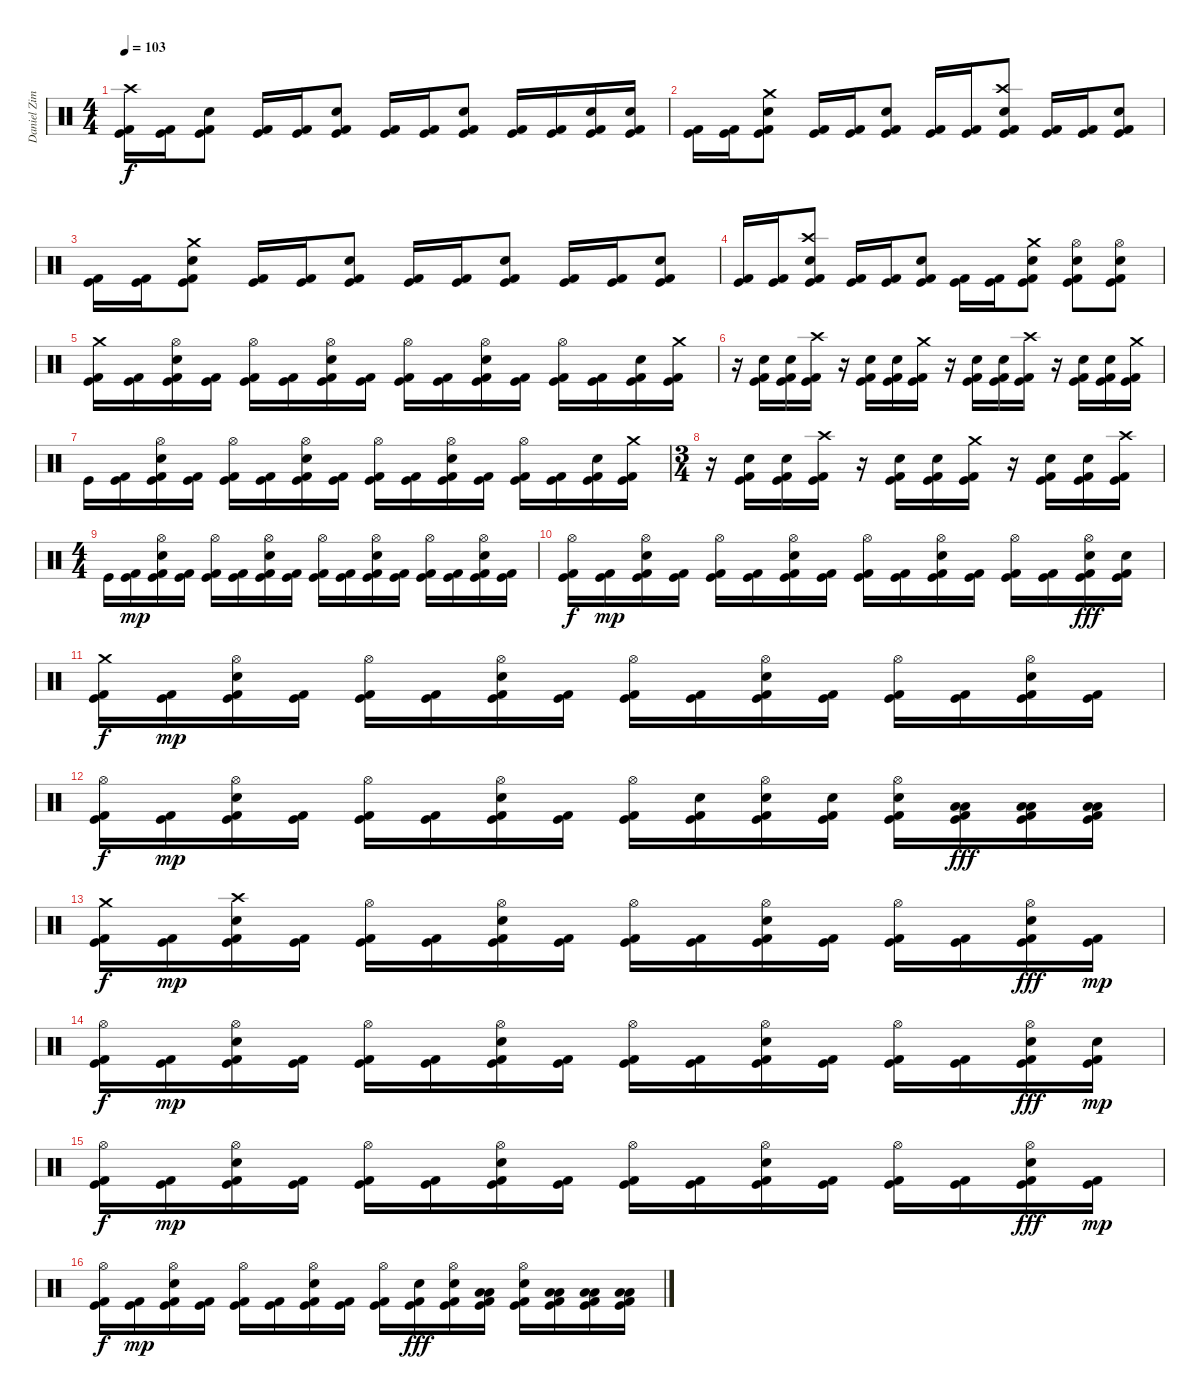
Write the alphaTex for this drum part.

\track ("Daniel Zimmermann - Drums" "Daniel Zim") {instrument percussion}
\staff {score}
\articulation defaults
\ts (4 4)
\tempo 103
\clef neutral
\ks c
("Kick (hit)" "Kick (hit) 2" "Crash high (hit)").16{dy f} ("Kick (hit)" "Kick (hit) 2").16 ("Kick (hit)" "Kick (hit) 2" "Electric Snare (hit)").8 ("Kick (hit)" "Kick (hit) 2").16 ("Kick (hit)" "Kick (hit) 2").16 ("Kick (hit)" "Kick (hit) 2" "Electric Snare (hit)").8 ("Kick (hit)" "Kick (hit) 2").16 ("Kick (hit)" "Kick (hit) 2").16 ("Kick (hit)" "Kick (hit) 2" "Electric Snare (hit)").8 ("Kick (hit)" "Kick (hit) 2").16 ("Kick (hit)" "Kick (hit) 2").16 ("Kick (hit)" "Kick (hit) 2" "Electric Snare (hit)").16 ("Kick (hit)" "Kick (hit) 2" "Electric Snare (hit)").16 |
("Kick (hit)" "Kick (hit) 2").16 ("Kick (hit)" "Kick (hit) 2").16 ("Kick (hit)" "Kick (hit) 2" "Electric Snare (hit)" "Crash medium (hit)").8 ("Kick (hit)" "Kick (hit) 2").16 ("Kick (hit)" "Kick (hit) 2").16 ("Kick (hit)" "Kick (hit) 2" "Electric Snare (hit)").8 ("Kick (hit)" "Kick (hit) 2").16 ("Kick (hit)" "Kick (hit) 2").16 ("Kick (hit)" "Kick (hit) 2" "Electric Snare (hit)" "Crash high (hit)").8 ("Kick (hit)" "Kick (hit) 2").16 ("Kick (hit)" "Kick (hit) 2").16 ("Kick (hit)" "Kick (hit) 2" "Electric Snare (hit)").8 |
("Kick (hit)" "Kick (hit) 2").16 ("Kick (hit)" "Kick (hit) 2").16 ("Kick (hit)" "Kick (hit) 2" "Electric Snare (hit)" "Crash medium (hit)").8 ("Kick (hit)" "Kick (hit) 2").16 ("Kick (hit)" "Kick (hit) 2").16 ("Kick (hit)" "Kick (hit) 2" "Electric Snare (hit)").8 ("Kick (hit)" "Kick (hit) 2").16 ("Kick (hit)" "Kick (hit) 2").16 ("Kick (hit)" "Kick (hit) 2" "Electric Snare (hit)").8 ("Kick (hit)" "Kick (hit) 2").16 ("Kick (hit)" "Kick (hit) 2").16 ("Kick (hit)" "Kick (hit) 2" "Electric Snare (hit)").8 |
("Kick (hit)" "Kick (hit) 2").16 ("Kick (hit)" "Kick (hit) 2").16 ("Kick (hit)" "Kick (hit) 2" "Electric Snare (hit)" "Crash high (hit)").8 ("Kick (hit)" "Kick (hit) 2").16 ("Kick (hit)" "Kick (hit) 2").16 ("Kick (hit)" "Kick (hit) 2" "Electric Snare (hit)").8 ("Kick (hit)" "Kick (hit) 2").16 ("Kick (hit)" "Kick (hit) 2").16 ("Kick (hit)" "Kick (hit) 2" "Electric Snare (hit)" "Crash medium (hit)").8 ("Kick (hit)" "Kick (hit) 2" "Electric Snare (hit)" "Hi-Hat (open)").8 ("Kick (hit)" "Kick (hit) 2" "Electric Snare (hit)" "Hi-Hat (open)").8 |
("Kick (hit)" "Kick (hit) 2" "Crash medium (hit)").16 ("Kick (hit)" "Kick (hit) 2").16 ("Kick (hit)" "Kick (hit) 2" "Electric Snare (hit)" "Hi-Hat (open)").16 ("Kick (hit)" "Kick (hit) 2").16 ("Kick (hit)" "Kick (hit) 2" "Hi-Hat (open)").16 ("Kick (hit)" "Kick (hit) 2").16 ("Kick (hit)" "Kick (hit) 2" "Electric Snare (hit)" "Hi-Hat (open)").16 ("Kick (hit)" "Kick (hit) 2").16 ("Kick (hit)" "Kick (hit) 2" "Hi-Hat (open)").16 ("Kick (hit)" "Kick (hit) 2").16 ("Kick (hit)" "Kick (hit) 2" "Electric Snare (hit)" "Hi-Hat (open)").16 ("Kick (hit)" "Kick (hit) 2").16 ("Kick (hit)" "Kick (hit) 2" "Hi-Hat (open)").16 ("Kick (hit)" "Kick (hit) 2").16 ("Kick (hit)" "Kick (hit) 2" "Electric Snare (hit)").16 ("Kick (hit)" "Kick (hit) 2" "Crash medium (hit)").16 |
r.16 ("Kick (hit)" "Kick (hit) 2" "Electric Snare (hit)").16 ("Kick (hit)" "Kick (hit) 2" "Electric Snare (hit)").16 ("Kick (hit)" "Kick (hit) 2" "Crash high (hit)").16 r.16 ("Kick (hit)" "Kick (hit) 2" "Electric Snare (hit)").16 ("Kick (hit)" "Kick (hit) 2" "Electric Snare (hit)").16 ("Kick (hit)" "Kick (hit) 2" "Crash medium (hit)").16 r.16 ("Kick (hit)" "Kick (hit) 2" "Electric Snare (hit)").16 ("Kick (hit)" "Kick (hit) 2" "Electric Snare (hit)").16 ("Kick (hit)" "Kick (hit) 2" "Crash high (hit)").16 r.16 ("Kick (hit)" "Kick (hit) 2" "Electric Snare (hit)").16 ("Kick (hit)" "Kick (hit) 2" "Electric Snare (hit)").16 ("Kick (hit)" "Kick (hit) 2" "Crash medium (hit)").16 |
"Kick (hit)".16 ("Kick (hit)" "Kick (hit) 2").16 ("Kick (hit)" "Kick (hit) 2" "Electric Snare (hit)" "Hi-Hat (open)").16 ("Kick (hit)" "Kick (hit) 2").16 ("Kick (hit)" "Kick (hit) 2" "Hi-Hat (open)").16 ("Kick (hit)" "Kick (hit) 2").16 ("Kick (hit)" "Kick (hit) 2" "Electric Snare (hit)" "Hi-Hat (open)").16 ("Kick (hit)" "Kick (hit) 2").16 ("Kick (hit)" "Kick (hit) 2" "Hi-Hat (open)").16 ("Kick (hit)" "Kick (hit) 2").16 ("Kick (hit)" "Kick (hit) 2" "Electric Snare (hit)" "Hi-Hat (open)").16 ("Kick (hit)" "Kick (hit) 2").16 ("Kick (hit)" "Kick (hit) 2" "Hi-Hat (open)").16 ("Kick (hit)" "Kick (hit) 2").16 ("Kick (hit)" "Kick (hit) 2" "Electric Snare (hit)").16 ("Kick (hit)" "Kick (hit) 2" "Crash medium (hit)").16 |
\ts (3 4)
r.16 ("Kick (hit)" "Kick (hit) 2" "Electric Snare (hit)").16 ("Kick (hit)" "Kick (hit) 2" "Electric Snare (hit)").16 ("Kick (hit)" "Kick (hit) 2" "Crash high (hit)").16 r.16 ("Kick (hit)" "Kick (hit) 2" "Electric Snare (hit)").16 ("Kick (hit)" "Kick (hit) 2" "Electric Snare (hit)").16 ("Kick (hit)" "Kick (hit) 2" "Crash medium (hit)").16 r.16 ("Kick (hit)" "Kick (hit) 2" "Electric Snare (hit)").16 ("Kick (hit)" "Kick (hit) 2" "Electric Snare (hit)").16 ("Kick (hit)" "Kick (hit) 2" "Crash high (hit)").16 |
\ts (4 4)
"Kick (hit)".16 ("Kick (hit)" "Kick (hit) 2").16{dy mp} ("Kick (hit)" "Kick (hit) 2" "Electric Snare (hit)" "Hi-Hat (open)").16 ("Kick (hit)" "Kick (hit) 2").16 ("Kick (hit)" "Kick (hit) 2" "Hi-Hat (open)").16 ("Kick (hit)" "Kick (hit) 2").16 ("Kick (hit)" "Kick (hit) 2" "Electric Snare (hit)" "Hi-Hat (open)").16 ("Kick (hit)" "Kick (hit) 2").16 ("Kick (hit)" "Kick (hit) 2" "Hi-Hat (open)").16 ("Kick (hit)" "Kick (hit) 2").16 ("Kick (hit)" "Kick (hit) 2" "Electric Snare (hit)" "Hi-Hat (open)").16 ("Kick (hit)" "Kick (hit) 2").16 ("Kick (hit)" "Kick (hit) 2" "Hi-Hat (open)").16 ("Kick (hit)" "Kick (hit) 2").16 ("Kick (hit)" "Kick (hit) 2" "Electric Snare (hit)" "Hi-Hat (open)").16 ("Kick (hit)" "Kick (hit) 2").16 |
("Kick (hit)" "Kick (hit) 2" "Hi-Hat (open)").16{dy f} ("Kick (hit)" "Kick (hit) 2").16{dy mp} ("Kick (hit)" "Kick (hit) 2" "Electric Snare (hit)" "Hi-Hat (open)").16 ("Kick (hit)" "Kick (hit) 2").16 ("Kick (hit)" "Kick (hit) 2" "Hi-Hat (open)").16 ("Kick (hit)" "Kick (hit) 2").16 ("Kick (hit)" "Kick (hit) 2" "Electric Snare (hit)" "Hi-Hat (open)").16 ("Kick (hit)" "Kick (hit) 2").16 ("Kick (hit)" "Kick (hit) 2" "Hi-Hat (open)").16 ("Kick (hit)" "Kick (hit) 2").16 ("Kick (hit)" "Kick (hit) 2" "Electric Snare (hit)" "Hi-Hat (open)").16 ("Kick (hit)" "Kick (hit) 2").16 ("Kick (hit)" "Kick (hit) 2" "Hi-Hat (open)").16 ("Kick (hit)" "Kick (hit) 2").16 ("Kick (hit)" "Kick (hit) 2" "Electric Snare (hit)" "Hi-Hat (open)").16{dy fff} ("Kick (hit)" "Kick (hit) 2" "Electric Snare (hit)").16 |
("Kick (hit)" "Kick (hit) 2" "Crash medium (hit)").16{dy f} ("Kick (hit)" "Kick (hit) 2").16{dy mp} ("Kick (hit)" "Kick (hit) 2" "Electric Snare (hit)" "Hi-Hat (open)").16 ("Kick (hit)" "Kick (hit) 2").16 ("Kick (hit)" "Kick (hit) 2" "Hi-Hat (open)").16 ("Kick (hit)" "Kick (hit) 2").16 ("Kick (hit)" "Kick (hit) 2" "Electric Snare (hit)" "Hi-Hat (open)").16 ("Kick (hit)" "Kick (hit) 2").16 ("Kick (hit)" "Kick (hit) 2" "Hi-Hat (open)").16 ("Kick (hit)" "Kick (hit) 2").16 ("Kick (hit)" "Kick (hit) 2" "Electric Snare (hit)" "Hi-Hat (open)").16 ("Kick (hit)" "Kick (hit) 2").16 ("Kick (hit)" "Kick (hit) 2" "Hi-Hat (open)").16 ("Kick (hit)" "Kick (hit) 2").16 ("Kick (hit)" "Kick (hit) 2" "Electric Snare (hit)" "Hi-Hat (open)").16 ("Kick (hit)" "Kick (hit) 2").16 |
("Kick (hit)" "Kick (hit) 2" "Hi-Hat (open)").16{dy f} ("Kick (hit)" "Kick (hit) 2").16{dy mp} ("Kick (hit)" "Kick (hit) 2" "Electric Snare (hit)" "Hi-Hat (open)").16 ("Kick (hit)" "Kick (hit) 2").16 ("Kick (hit)" "Kick (hit) 2" "Hi-Hat (open)").16 ("Kick (hit)" "Kick (hit) 2").16 ("Kick (hit)" "Kick (hit) 2" "Electric Snare (hit)" "Hi-Hat (open)").16 ("Kick (hit)" "Kick (hit) 2").16 ("Kick (hit)" "Kick (hit) 2" "Hi-Hat (open)").16 ("Kick (hit)" "Kick (hit) 2" "Electric Snare (hit)").16 ("Kick (hit)" "Kick (hit) 2" "Electric Snare (hit)" "Hi-Hat (open)").16 ("Kick (hit)" "Kick (hit) 2" "Electric Snare (hit)").16 ("Kick (hit)" "Kick (hit) 2" "Electric Snare (hit)" "Hi-Hat (open)").16 ("Kick (hit)" "Kick (hit) 2" "Low Tom (hit)" "Low Tom (hit)").16{dy fff} ("Kick (hit)" "Kick (hit) 2" "Low Tom (hit)" "Low Tom (hit)").16 ("Kick (hit)" "Kick (hit) 2" "Low Tom (hit)" "Low Tom (hit)").16 |
("Kick (hit)" "Kick (hit) 2" "Crash medium (hit)").16{dy f} ("Kick (hit)" "Kick (hit) 2").16{dy mp} ("Kick (hit)" "Kick (hit) 2" "Electric Snare (hit)" "Crash high (hit)").16 ("Kick (hit)" "Kick (hit) 2").16 ("Kick (hit)" "Kick (hit) 2" "Hi-Hat (open)").16 ("Kick (hit)" "Kick (hit) 2").16 ("Kick (hit)" "Kick (hit) 2" "Electric Snare (hit)" "Hi-Hat (open)").16 ("Kick (hit)" "Kick (hit) 2").16 ("Kick (hit)" "Kick (hit) 2" "Hi-Hat (open)").16 ("Kick (hit)" "Kick (hit) 2").16 ("Kick (hit)" "Kick (hit) 2" "Electric Snare (hit)" "Hi-Hat (open)").16 ("Kick (hit)" "Kick (hit) 2").16 ("Kick (hit)" "Kick (hit) 2" "Hi-Hat (open)").16 ("Kick (hit)" "Kick (hit) 2").16 ("Kick (hit)" "Kick (hit) 2" "Electric Snare (hit)" "Hi-Hat (open)").16{dy fff} ("Kick (hit)" "Kick (hit) 2").16{dy mp} |
("Kick (hit)" "Kick (hit) 2" "Hi-Hat (open)").16{dy f} ("Kick (hit)" "Kick (hit) 2").16{dy mp} ("Kick (hit)" "Kick (hit) 2" "Electric Snare (hit)" "Hi-Hat (open)").16 ("Kick (hit)" "Kick (hit) 2").16 ("Kick (hit)" "Kick (hit) 2" "Hi-Hat (open)").16 ("Kick (hit)" "Kick (hit) 2").16 ("Kick (hit)" "Kick (hit) 2" "Electric Snare (hit)" "Hi-Hat (open)").16 ("Kick (hit)" "Kick (hit) 2").16 ("Kick (hit)" "Kick (hit) 2" "Hi-Hat (open)").16 ("Kick (hit)" "Kick (hit) 2").16 ("Kick (hit)" "Kick (hit) 2" "Electric Snare (hit)" "Hi-Hat (open)").16 ("Kick (hit)" "Kick (hit) 2").16 ("Kick (hit)" "Kick (hit) 2" "Hi-Hat (open)").16 ("Kick (hit)" "Kick (hit) 2").16 ("Kick (hit)" "Kick (hit) 2" "Electric Snare (hit)" "Hi-Hat (open)").16{dy fff} ("Kick (hit)" "Kick (hit) 2" "Electric Snare (hit)").16{dy mp} |
("Kick (hit)" "Kick (hit) 2" "Hi-Hat (open)").16{dy f} ("Kick (hit)" "Kick (hit) 2").16{dy mp} ("Kick (hit)" "Kick (hit) 2" "Electric Snare (hit)" "Hi-Hat (open)").16 ("Kick (hit)" "Kick (hit) 2").16 ("Kick (hit)" "Kick (hit) 2" "Hi-Hat (open)").16 ("Kick (hit)" "Kick (hit) 2").16 ("Kick (hit)" "Kick (hit) 2" "Electric Snare (hit)" "Hi-Hat (open)").16 ("Kick (hit)" "Kick (hit) 2").16 ("Kick (hit)" "Kick (hit) 2" "Hi-Hat (open)").16 ("Kick (hit)" "Kick (hit) 2").16 ("Kick (hit)" "Kick (hit) 2" "Electric Snare (hit)" "Hi-Hat (open)").16 ("Kick (hit)" "Kick (hit) 2").16 ("Kick (hit)" "Kick (hit) 2" "Hi-Hat (open)").16 ("Kick (hit)" "Kick (hit) 2").16 ("Kick (hit)" "Kick (hit) 2" "Electric Snare (hit)" "Hi-Hat (open)").16{dy fff} ("Kick (hit)" "Kick (hit) 2").16{dy mp} |
("Kick (hit)" "Kick (hit) 2" "Hi-Hat (open)").16{dy f} ("Kick (hit)" "Kick (hit) 2").16{dy mp} ("Kick (hit)" "Kick (hit) 2" "Electric Snare (hit)" "Hi-Hat (open)").16 ("Kick (hit)" "Kick (hit) 2").16 ("Kick (hit)" "Kick (hit) 2" "Hi-Hat (open)").16 ("Kick (hit)" "Kick (hit) 2").16 ("Kick (hit)" "Kick (hit) 2" "Electric Snare (hit)" "Hi-Hat (open)").16 ("Kick (hit)" "Kick (hit) 2").16 ("Kick (hit)" "Kick (hit) 2" "Hi-Hat (open)").16 ("Kick (hit)" "Kick (hit) 2" "Electric Snare (hit)").16{dy fff} ("Kick (hit)" "Kick (hit) 2" "Electric Snare (hit)" "Hi-Hat (open)").16 ("Kick (hit)" "Kick (hit) 2" "Low Tom (hit)" "Low Tom (hit)").16 ("Kick (hit)" "Kick (hit) 2" "Electric Snare (hit)" "Hi-Hat (open)").16 ("Kick (hit)" "Kick (hit) 2" "Low Tom (hit)" "Low Tom (hit)").16 ("Kick (hit)" "Kick (hit) 2" "Low Tom (hit)" "Low Tom (hit)").16 ("Kick (hit)" "Kick (hit) 2" "Low Tom (hit)" "Low Tom (hit)").16
